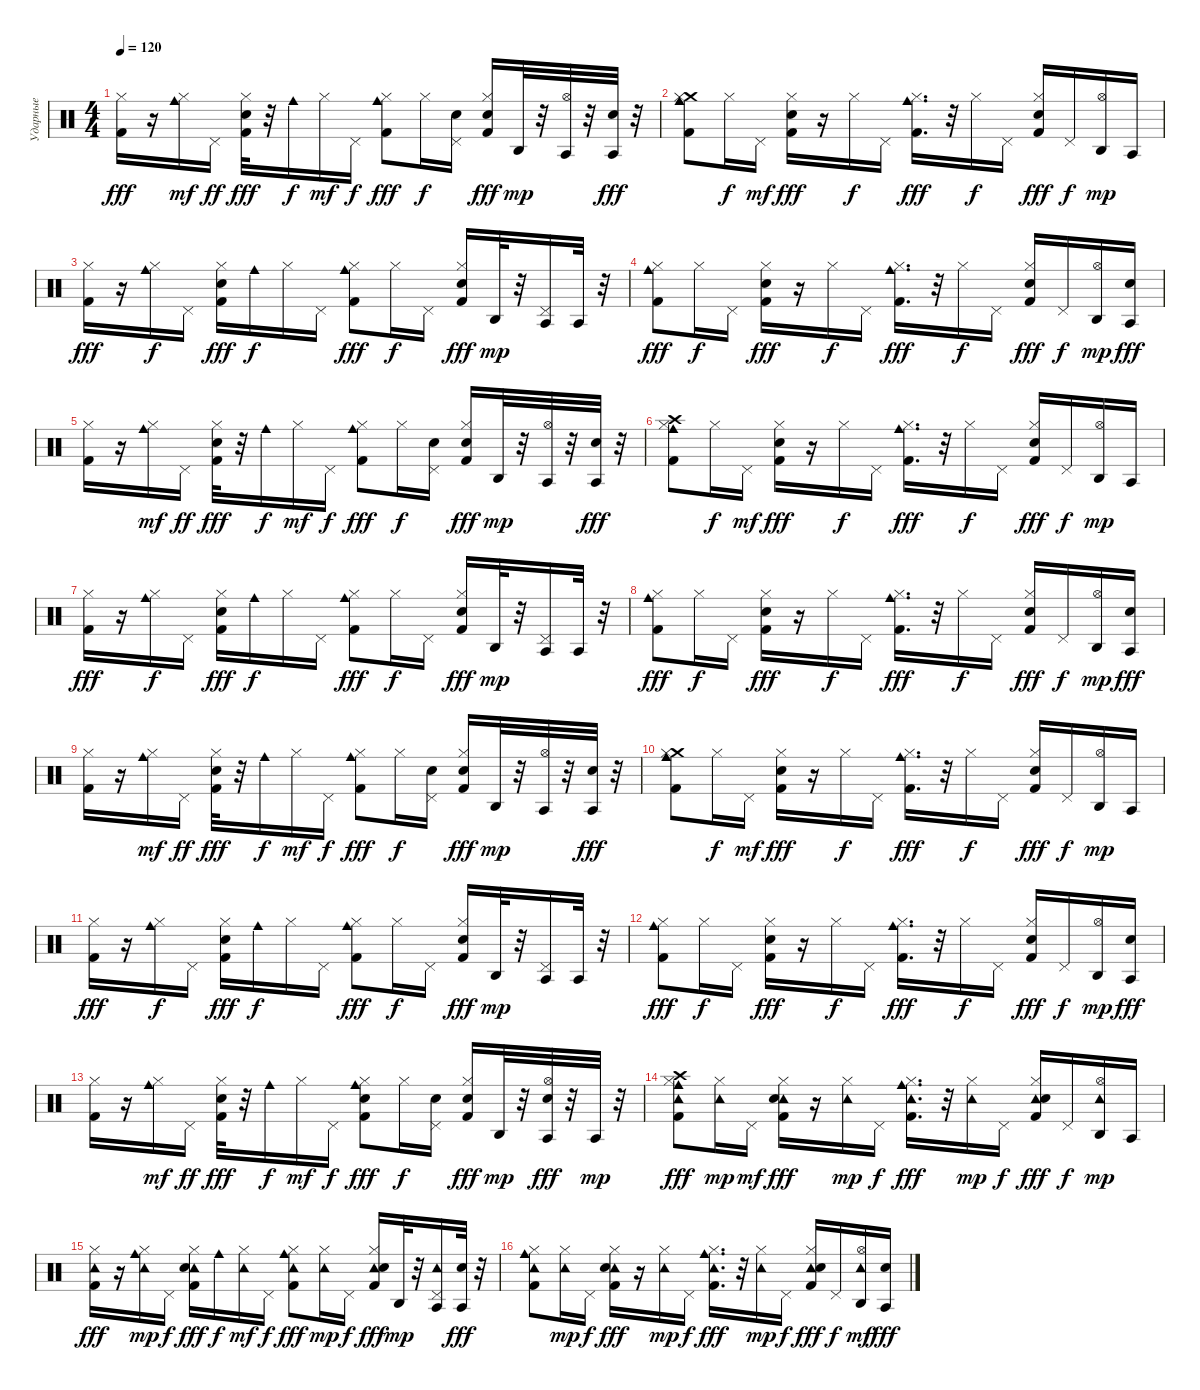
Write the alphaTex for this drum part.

\track ("Ударные" "Ударные") {instrument percussion}
\staff {score}
\articulation defaults
\ts (4 4)
\tempo 120
\clef neutral
\ks c
("Kick (hit) 2" "Hi-Hat (closed)").16{dy fff} r.16 ("Cowbell medium (hit)" "Hi-Hat (closed)").16{dy mf} "Pedal Hi-Hat (hit)".16{dy ff} ("Electric Snare (hit)" "Kick (hit) 2" "Hi-Hat (closed)").32{dy fff} r.32 "Cowbell medium (hit)".16{dy f} "Hi-Hat (closed)".16{dy mf} "Pedal Hi-Hat (hit)".16{dy f} ("Cowbell medium (hit)" "Hi-Hat (closed)" "Kick (hit) 2").8{dy fff} "Hi-Hat (closed)".16{dy f} ("Pedal Hi-Hat (hit)" "Electric Snare (hit)").16 ("Hi-Hat (closed)" "Kick (hit) 2" "Electric Snare (hit)").16{dy fff} "Agogo high (hit)".32{dy mp} r.32 ("Agogo tow (hit)" "Hi-Hat (open)").32 r.32 ("Agogo tow (hit)" "Electric Snare (hit)").32{dy fff} r.32 |
("Cowbell medium (hit)" "Crash medium (hit)" "Hi-Hat (closed)" "Kick (hit) 2").8 "Hi-Hat (closed)".16{dy f} "Pedal Hi-Hat (hit)".16{dy mf} ("Electric Snare (hit)" "Kick (hit) 2" "Hi-Hat (closed)").16{dy fff} r.16 "Hi-Hat (closed)".16{dy f} "Pedal Hi-Hat (hit)".16 ("Cowbell medium (hit)" "Kick (hit) 2" "Hi-Hat (closed)").16{d dy fff} r.32 "Hi-Hat (closed)".16{dy f} "Pedal Hi-Hat (hit)".16 ("Kick (hit) 2" "Electric Snare (hit)" "Hi-Hat (closed)").16{dy fff} "Pedal Hi-Hat (hit)".16{dy f} ("Agogo high (hit)" "Hi-Hat (open)").16{dy mp} "Agogo tow (hit)".16 |
("Kick (hit) 2" "Hi-Hat (closed)").16{dy fff} r.16 ("Cowbell medium (hit)" "Hi-Hat (closed)").16{dy f} "Pedal Hi-Hat (hit)".16 ("Hi-Hat (closed)" "Kick (hit) 2" "Electric Snare (hit)").16{dy fff} "Cowbell medium (hit)".16{dy f} "Hi-Hat (closed)".16 "Pedal Hi-Hat (hit)".16 ("Cowbell medium (hit)" "Kick (hit) 2" "Hi-Hat (closed)").8{dy fff} "Hi-Hat (closed)".16{dy f} "Pedal Hi-Hat (hit)".16 ("Electric Snare (hit)" "Kick (hit) 2" "Hi-Hat (closed)").16{dy fff} "Agogo high (hit)".32{dy mp} r.32 ("Agogo tow (hit)" "Pedal Hi-Hat (hit)").16 "Agogo tow (hit)".32 r.32 |
("Cowbell medium (hit)" "Kick (hit) 2" "Hi-Hat (closed)").8{dy fff} "Hi-Hat (closed)".16{dy f} "Pedal Hi-Hat (hit)".16 ("Electric Snare (hit)" "Kick (hit) 2" "Hi-Hat (closed)").16{dy fff} r.16 "Hi-Hat (closed)".16{dy f} "Pedal Hi-Hat (hit)".16 ("Cowbell medium (hit)" "Hi-Hat (closed)" "Kick (hit) 2").16{d dy fff} r.32 "Hi-Hat (closed)".16{dy f} "Pedal Hi-Hat (hit)".16 ("Kick (hit) 2" "Electric Snare (hit)" "Hi-Hat (closed)").16{dy fff} "Pedal Hi-Hat (hit)".16{dy f} ("Agogo high (hit)" "Hi-Hat (open)").16{dy mp} ("Agogo tow (hit)" "Electric Snare (hit)").16{dy fff} |
("Kick (hit) 2" "Hi-Hat (closed)").16 r.16 ("Cowbell medium (hit)" "Hi-Hat (closed)").16{dy mf} "Pedal Hi-Hat (hit)".16{dy ff} ("Electric Snare (hit)" "Kick (hit) 2" "Hi-Hat (closed)").32{dy fff} r.32 "Cowbell medium (hit)".16{dy f} "Hi-Hat (closed)".16{dy mf} "Pedal Hi-Hat (hit)".16{dy f} ("Cowbell medium (hit)" "Hi-Hat (closed)" "Kick (hit) 2").8{dy fff} "Hi-Hat (closed)".16{dy f} ("Pedal Hi-Hat (hit)" "Electric Snare (hit)").16 ("Hi-Hat (closed)" "Kick (hit) 2" "Electric Snare (hit)").16{dy fff} "Agogo high (hit)".32{dy mp} r.32 ("Agogo tow (hit)" "Hi-Hat (open)").32 r.32 ("Agogo tow (hit)" "Electric Snare (hit)").32{dy fff} r.32 |
("Cowbell medium (hit)" "Crash high (hit)" "Hi-Hat (closed)" "Kick (hit) 2").8 "Hi-Hat (closed)".16{dy f} "Pedal Hi-Hat (hit)".16{dy mf} ("Electric Snare (hit)" "Kick (hit) 2" "Hi-Hat (closed)").16{dy fff} r.16 "Hi-Hat (closed)".16{dy f} "Pedal Hi-Hat (hit)".16 ("Cowbell medium (hit)" "Kick (hit) 2" "Hi-Hat (closed)").16{d dy fff} r.32 "Hi-Hat (closed)".16{dy f} "Pedal Hi-Hat (hit)".16 ("Kick (hit) 2" "Electric Snare (hit)" "Hi-Hat (closed)").16{dy fff} "Pedal Hi-Hat (hit)".16{dy f} ("Agogo high (hit)" "Hi-Hat (open)").16{dy mp} "Agogo tow (hit)".16 |
("Kick (hit) 2" "Hi-Hat (closed)").16{dy fff} r.16 ("Cowbell medium (hit)" "Hi-Hat (closed)").16{dy f} "Pedal Hi-Hat (hit)".16 ("Hi-Hat (closed)" "Kick (hit) 2" "Electric Snare (hit)").16{dy fff} "Cowbell medium (hit)".16{dy f} "Hi-Hat (closed)".16 "Pedal Hi-Hat (hit)".16 ("Cowbell medium (hit)" "Kick (hit) 2" "Hi-Hat (closed)").8{dy fff} "Hi-Hat (closed)".16{dy f} "Pedal Hi-Hat (hit)".16 ("Electric Snare (hit)" "Kick (hit) 2" "Hi-Hat (closed)").16{dy fff} "Agogo high (hit)".32{dy mp} r.32 ("Agogo tow (hit)" "Pedal Hi-Hat (hit)").16 "Agogo tow (hit)".32 r.32 |
("Cowbell medium (hit)" "Kick (hit) 2" "Hi-Hat (closed)").8{dy fff} "Hi-Hat (closed)".16{dy f} "Pedal Hi-Hat (hit)".16 ("Electric Snare (hit)" "Kick (hit) 2" "Hi-Hat (closed)").16{dy fff} r.16 "Hi-Hat (closed)".16{dy f} "Pedal Hi-Hat (hit)".16 ("Cowbell medium (hit)" "Hi-Hat (closed)" "Kick (hit) 2").16{d dy fff} r.32 "Hi-Hat (closed)".16{dy f} "Pedal Hi-Hat (hit)".16 ("Kick (hit) 2" "Electric Snare (hit)" "Hi-Hat (closed)").16{dy fff} "Pedal Hi-Hat (hit)".16{dy f} ("Agogo high (hit)" "Hi-Hat (open)").16{dy mp} ("Agogo tow (hit)" "Electric Snare (hit)").16{dy fff} |
("Kick (hit) 2" "Hi-Hat (closed)").16 r.16 ("Cowbell medium (hit)" "Hi-Hat (closed)").16{dy mf} "Pedal Hi-Hat (hit)".16{dy ff} ("Electric Snare (hit)" "Kick (hit) 2" "Hi-Hat (closed)").32{dy fff} r.32 "Cowbell medium (hit)".16{dy f} "Hi-Hat (closed)".16{dy mf} "Pedal Hi-Hat (hit)".16{dy f} ("Cowbell medium (hit)" "Hi-Hat (closed)" "Kick (hit) 2").8{dy fff} "Hi-Hat (closed)".16{dy f} ("Pedal Hi-Hat (hit)" "Electric Snare (hit)").16 ("Hi-Hat (closed)" "Kick (hit) 2" "Electric Snare (hit)").16{dy fff} "Agogo high (hit)".32{dy mp} r.32 ("Agogo tow (hit)" "Hi-Hat (open)").32 r.32 ("Agogo tow (hit)" "Electric Snare (hit)").32{dy fff} r.32 |
("Cowbell medium (hit)" "Crash medium (hit)" "Hi-Hat (closed)" "Kick (hit) 2").8 "Hi-Hat (closed)".16{dy f} "Pedal Hi-Hat (hit)".16{dy mf} ("Electric Snare (hit)" "Kick (hit) 2" "Hi-Hat (closed)").16{dy fff} r.16 "Hi-Hat (closed)".16{dy f} "Pedal Hi-Hat (hit)".16 ("Cowbell medium (hit)" "Kick (hit) 2" "Hi-Hat (closed)").16{d dy fff} r.32 "Hi-Hat (closed)".16{dy f} "Pedal Hi-Hat (hit)".16 ("Kick (hit) 2" "Electric Snare (hit)" "Hi-Hat (closed)").16{dy fff} "Pedal Hi-Hat (hit)".16{dy f} ("Agogo high (hit)" "Hi-Hat (open)").16{dy mp} "Agogo tow (hit)".16 |
("Kick (hit) 2" "Hi-Hat (closed)").16{dy fff} r.16 ("Cowbell medium (hit)" "Hi-Hat (closed)").16{dy f} "Pedal Hi-Hat (hit)".16 ("Hi-Hat (closed)" "Kick (hit) 2" "Electric Snare (hit)").16{dy fff} "Cowbell medium (hit)".16{dy f} "Hi-Hat (closed)".16 "Pedal Hi-Hat (hit)".16 ("Cowbell medium (hit)" "Kick (hit) 2" "Hi-Hat (closed)").8{dy fff} "Hi-Hat (closed)".16{dy f} "Pedal Hi-Hat (hit)".16 ("Electric Snare (hit)" "Kick (hit) 2" "Hi-Hat (closed)").16{dy fff} "Agogo high (hit)".32{dy mp} r.32 ("Agogo tow (hit)" "Pedal Hi-Hat (hit)").16 "Agogo tow (hit)".32 r.32 |
("Cowbell medium (hit)" "Kick (hit) 2" "Hi-Hat (closed)").8{dy fff} "Hi-Hat (closed)".16{dy f} "Pedal Hi-Hat (hit)".16 ("Electric Snare (hit)" "Kick (hit) 2" "Hi-Hat (closed)").16{dy fff} r.16 "Hi-Hat (closed)".16{dy f} "Pedal Hi-Hat (hit)".16 ("Cowbell medium (hit)" "Hi-Hat (closed)" "Kick (hit) 2").16{d dy fff} r.32 "Hi-Hat (closed)".16{dy f} "Pedal Hi-Hat (hit)".16 ("Kick (hit) 2" "Electric Snare (hit)" "Hi-Hat (closed)").16{dy fff} "Pedal Hi-Hat (hit)".16{dy f} ("Agogo high (hit)" "Hi-Hat (open)").16{dy mp} ("Agogo tow (hit)" "Electric Snare (hit)").16{dy fff} |
("Kick (hit) 2" "Hi-Hat (closed)").16 r.16 ("Cowbell medium (hit)" "Hi-Hat (closed)").16{dy mf} "Pedal Hi-Hat (hit)".16{dy ff} ("Electric Snare (hit)" "Kick (hit) 2" "Hi-Hat (closed)").32{dy fff} r.32 "Cowbell medium (hit)".16{dy f} "Hi-Hat (closed)".16{dy mf} "Pedal Hi-Hat (hit)".16{dy f} ("Cowbell medium (hit)" "Electric Snare (hit)" "Hi-Hat (closed)" "Kick (hit) 2").8{dy fff} "Hi-Hat (closed)".16{dy f} ("Pedal Hi-Hat (hit)" "Electric Snare (hit)").16 ("Hi-Hat (closed)" "Kick (hit) 2" "Electric Snare (hit)").16{dy fff} "Agogo high (hit)".32{dy mp} r.32 ("Agogo tow (hit)" "Electric Snare (hit)" "Hi-Hat (open)").32{dy fff} r.32 "Agogo tow (hit)".32{dy mp} r.32 |
("Tambourine (hit)" "Cowbell medium (hit)" "Crash high (hit)" "Hi-Hat (closed)" "Kick (hit) 2").8{dy fff} ("Tambourine (hit)" "Hi-Hat (closed)").16{dy mp} "Pedal Hi-Hat (hit)".16{dy mf} ("Tambourine (hit)" "Electric Snare (hit)" "Kick (hit) 2" "Hi-Hat (closed)").16{dy fff} r.16 ("Tambourine (hit)" "Hi-Hat (closed)").16{dy mp} "Pedal Hi-Hat (hit)".16{dy f} ("Tambourine (hit)" "Cowbell medium (hit)" "Kick (hit) 2" "Hi-Hat (closed)").16{d dy fff} r.32 ("Tambourine (hit)" "Hi-Hat (closed)").16{dy mp} "Pedal Hi-Hat (hit)".16{dy f} ("Tambourine (hit)" "Kick (hit) 2" "Electric Snare (hit)" "Hi-Hat (closed)").16{dy fff} "Pedal Hi-Hat (hit)".16{dy f} ("Agogo high (hit)" "Tambourine (hit)" "Hi-Hat (open)").16{dy mp} "Agogo tow (hit)".16 |
("Tambourine (hit)" "Kick (hit) 2" "Hi-Hat (closed)").16{dy fff} r.16 ("Cowbell medium (hit)" "Tambourine (hit)" "Hi-Hat (closed)").16{dy mp} "Pedal Hi-Hat (hit)".16{dy f} ("Tambourine (hit)" "Hi-Hat (closed)" "Kick (hit) 2" "Electric Snare (hit)").16{dy fff} "Cowbell medium (hit)".16{dy f} ("Tambourine (hit)" "Hi-Hat (closed)").16{dy mf} "Pedal Hi-Hat (hit)".16{dy f} ("Cowbell medium (hit)" "Tambourine (hit)" "Kick (hit) 2" "Hi-Hat (closed)").8{dy fff} ("Tambourine (hit)" "Hi-Hat (closed)").16{dy mp} "Pedal Hi-Hat (hit)".16{dy f} ("Tambourine (hit)" "Electric Snare (hit)" "Kick (hit) 2" "Hi-Hat (closed)").16{dy fff} "Agogo high (hit)".32{dy mp} r.32 ("Agogo tow (hit)" "Tambourine (hit)" "Pedal Hi-Hat (hit)").16 ("Agogo tow (hit)" "Electric Snare (hit)").32{dy fff} r.32 |
("Cowbell medium (hit)" "Tambourine (hit)" "Kick (hit) 2" "Hi-Hat (closed)").8 ("Tambourine (hit)" "Hi-Hat (closed)").16{dy mp} "Pedal Hi-Hat (hit)".16{dy f} ("Tambourine (hit)" "Electric Snare (hit)" "Kick (hit) 2" "Hi-Hat (closed)").16{dy fff} r.16 ("Tambourine (hit)" "Hi-Hat (closed)").16{dy mp} "Pedal Hi-Hat (hit)".16{dy f} ("Cowbell medium (hit)" "Tambourine (hit)" "Hi-Hat (closed)" "Kick (hit) 2").16{d dy fff} r.32 ("Tambourine (hit)" "Hi-Hat (closed)").16{dy mp} "Pedal Hi-Hat (hit)".16{dy f} ("Tambourine (hit)" "Kick (hit) 2" "Electric Snare (hit)" "Hi-Hat (closed)").16{dy fff} "Pedal Hi-Hat (hit)".16{dy f} ("Agogo high (hit)" "Tambourine (hit)" "Hi-Hat (open)").16{dy mf} ("Agogo tow (hit)" "Electric Snare (hit)").16{dy fff}
